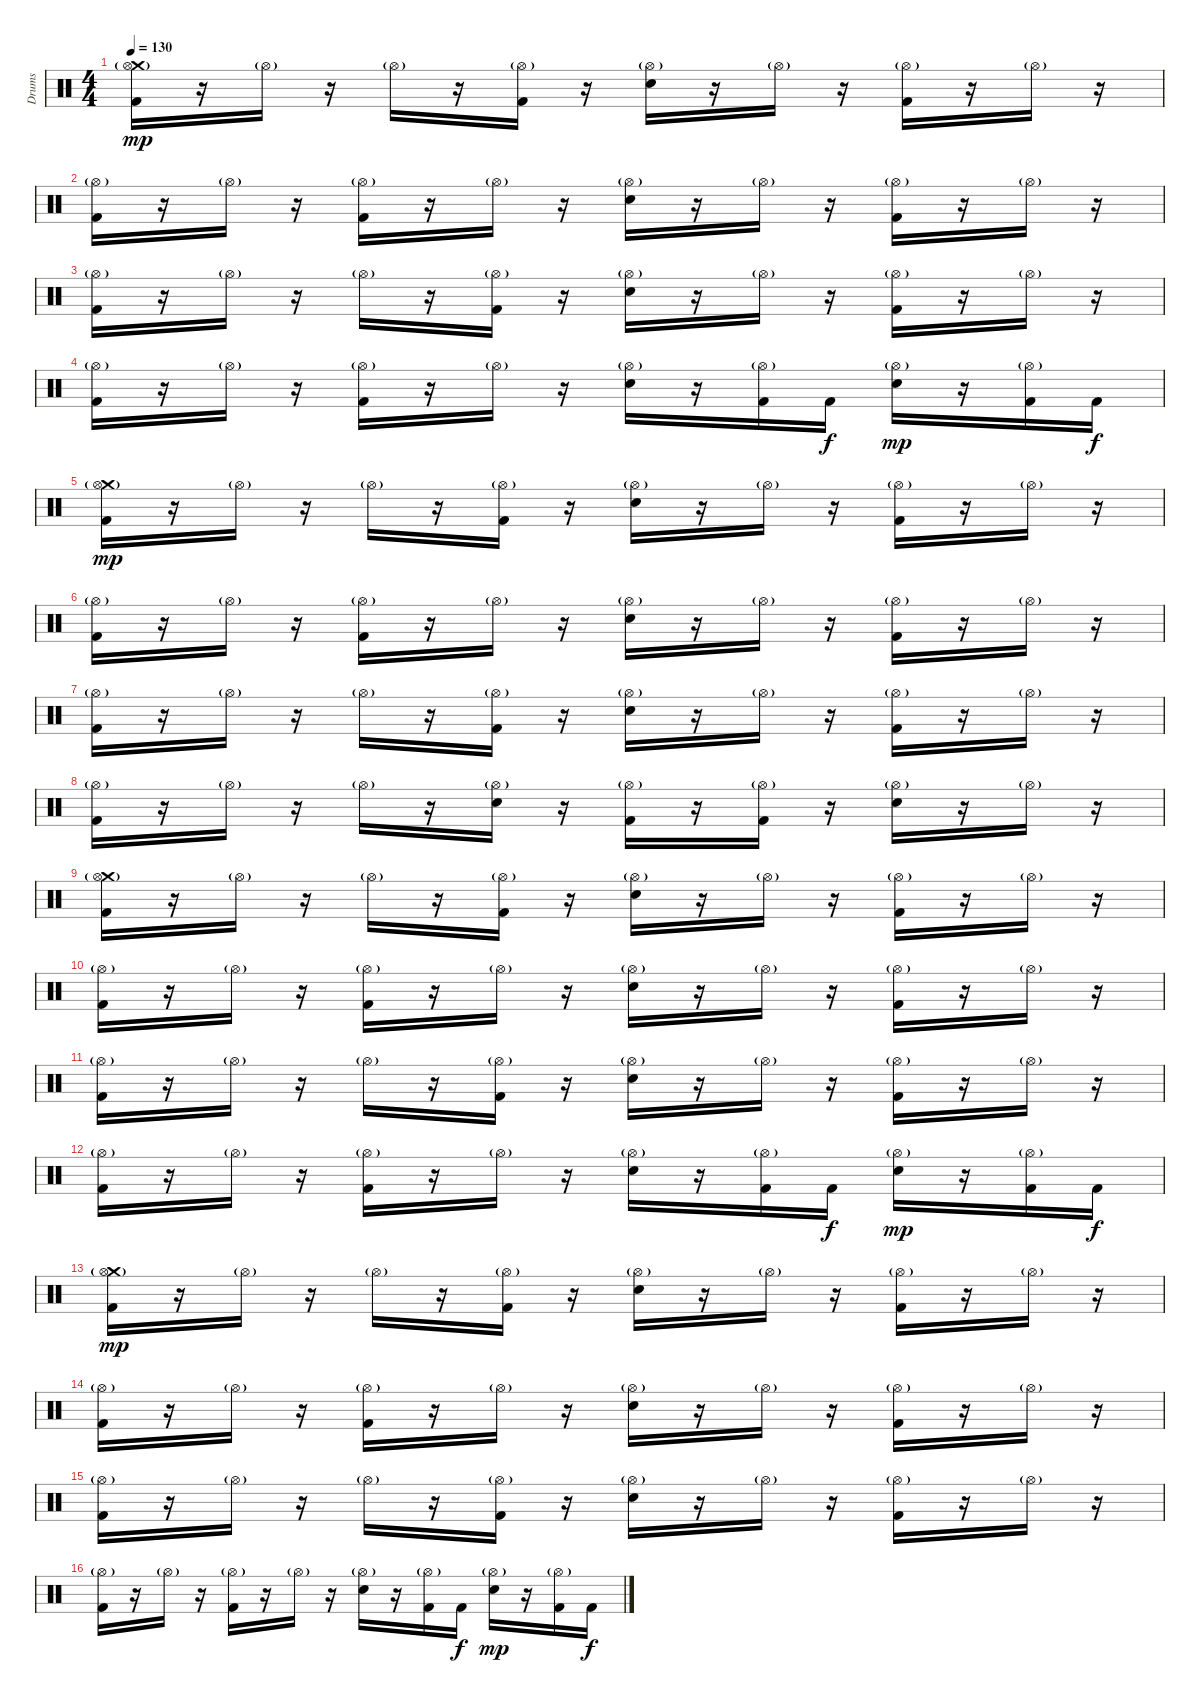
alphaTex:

\track ("Drums" "Drums") {instrument percussion}
\staff {score}
\articulation defaults
\ts (4 4)
\tempo 130
\clef neutral
\ks c
("Kick (hit) 2" "Crash medium (hit)" "Hi-Hat (open)"{g}).16{dy mp} r.16 "Hi-Hat (open)"{g}.16 r.16 "Hi-Hat (open)"{g}.16 r.16 ("Kick (hit) 2" "Hi-Hat (open)"{g}).16 r.16 ("Electric Snare (hit)" "Hi-Hat (open)"{g}).16 r.16 "Hi-Hat (open)"{g}.16 r.16 ("Kick (hit) 2" "Hi-Hat (open)"{g}).16 r.16 "Hi-Hat (open)"{g}.16 r.16 |
("Kick (hit) 2" "Hi-Hat (open)"{g}).16 r.16 "Hi-Hat (open)"{g}.16 r.16 ("Kick (hit) 2" "Hi-Hat (open)"{g}).16 r.16 "Hi-Hat (open)"{g}.16 r.16 ("Electric Snare (hit)" "Hi-Hat (open)"{g}).16 r.16 "Hi-Hat (open)"{g}.16 r.16 ("Kick (hit) 2" "Hi-Hat (open)"{g}).16 r.16 "Hi-Hat (open)"{g}.16 r.16 |
("Kick (hit) 2" "Hi-Hat (open)"{g}).16 r.16 "Hi-Hat (open)"{g}.16 r.16 "Hi-Hat (open)"{g}.16 r.16 ("Kick (hit) 2" "Hi-Hat (open)"{g}).16 r.16 ("Electric Snare (hit)" "Hi-Hat (open)"{g}).16 r.16 "Hi-Hat (open)"{g}.16 r.16 ("Kick (hit) 2" "Hi-Hat (open)"{g}).16 r.16 "Hi-Hat (open)"{g}.16 r.16 |
("Kick (hit) 2" "Hi-Hat (open)"{g}).16 r.16 "Hi-Hat (open)"{g}.16 r.16 ("Kick (hit) 2" "Hi-Hat (open)"{g}).16 r.16 "Hi-Hat (open)"{g}.16 r.16 ("Electric Snare (hit)" "Hi-Hat (open)"{g}).16 r.16 ("Kick (hit) 2" "Hi-Hat (open)"{g}).16 "Kick (hit) 2".16{dy f} ("Electric Snare (hit)" "Hi-Hat (open)"{g}).16{dy mp} r.16 ("Kick (hit) 2" "Hi-Hat (open)"{g}).16 "Kick (hit) 2".16{dy f} |
("Kick (hit) 2" "Crash medium (hit)" "Hi-Hat (open)"{g}).16{dy mp} r.16 "Hi-Hat (open)"{g}.16 r.16 "Hi-Hat (open)"{g}.16 r.16 ("Kick (hit) 2" "Hi-Hat (open)"{g}).16 r.16 ("Electric Snare (hit)" "Hi-Hat (open)"{g}).16 r.16 "Hi-Hat (open)"{g}.16 r.16 ("Kick (hit) 2" "Hi-Hat (open)"{g}).16 r.16 "Hi-Hat (open)"{g}.16 r.16 |
("Kick (hit) 2" "Hi-Hat (open)"{g}).16 r.16 "Hi-Hat (open)"{g}.16 r.16 ("Kick (hit) 2" "Hi-Hat (open)"{g}).16 r.16 "Hi-Hat (open)"{g}.16 r.16 ("Electric Snare (hit)" "Hi-Hat (open)"{g}).16 r.16 "Hi-Hat (open)"{g}.16 r.16 ("Kick (hit) 2" "Hi-Hat (open)"{g}).16 r.16 "Hi-Hat (open)"{g}.16 r.16 |
("Kick (hit) 2" "Hi-Hat (open)"{g}).16 r.16 "Hi-Hat (open)"{g}.16 r.16 "Hi-Hat (open)"{g}.16 r.16 ("Kick (hit) 2" "Hi-Hat (open)"{g}).16 r.16 ("Electric Snare (hit)" "Hi-Hat (open)"{g}).16 r.16 "Hi-Hat (open)"{g}.16 r.16 ("Kick (hit) 2" "Hi-Hat (open)"{g}).16 r.16 "Hi-Hat (open)"{g}.16 r.16 |
("Kick (hit) 2" "Hi-Hat (open)"{g}).16 r.16 "Hi-Hat (open)"{g}.16 r.16 "Hi-Hat (open)"{g}.16 r.16 ("Electric Snare (hit)" "Hi-Hat (open)"{g}).16 r.16 ("Kick (hit) 2" "Hi-Hat (open)"{g}).16 r.16 ("Kick (hit) 2" "Hi-Hat (open)"{g}).16 r.16 ("Electric Snare (hit)" "Hi-Hat (open)"{g}).16 r.16 "Hi-Hat (open)"{g}.16 r.16 |
("Kick (hit) 2" "Crash medium (hit)" "Hi-Hat (open)"{g}).16 r.16 "Hi-Hat (open)"{g}.16 r.16 "Hi-Hat (open)"{g}.16 r.16 ("Kick (hit) 2" "Hi-Hat (open)"{g}).16 r.16 ("Electric Snare (hit)" "Hi-Hat (open)"{g}).16 r.16 "Hi-Hat (open)"{g}.16 r.16 ("Kick (hit) 2" "Hi-Hat (open)"{g}).16 r.16 "Hi-Hat (open)"{g}.16 r.16 |
("Kick (hit) 2" "Hi-Hat (open)"{g}).16 r.16 "Hi-Hat (open)"{g}.16 r.16 ("Kick (hit) 2" "Hi-Hat (open)"{g}).16 r.16 "Hi-Hat (open)"{g}.16 r.16 ("Electric Snare (hit)" "Hi-Hat (open)"{g}).16 r.16 "Hi-Hat (open)"{g}.16 r.16 ("Kick (hit) 2" "Hi-Hat (open)"{g}).16 r.16 "Hi-Hat (open)"{g}.16 r.16 |
("Kick (hit) 2" "Hi-Hat (open)"{g}).16 r.16 "Hi-Hat (open)"{g}.16 r.16 "Hi-Hat (open)"{g}.16 r.16 ("Kick (hit) 2" "Hi-Hat (open)"{g}).16 r.16 ("Electric Snare (hit)" "Hi-Hat (open)"{g}).16 r.16 "Hi-Hat (open)"{g}.16 r.16 ("Kick (hit) 2" "Hi-Hat (open)"{g}).16 r.16 "Hi-Hat (open)"{g}.16 r.16 |
("Kick (hit) 2" "Hi-Hat (open)"{g}).16 r.16 "Hi-Hat (open)"{g}.16 r.16 ("Kick (hit) 2" "Hi-Hat (open)"{g}).16 r.16 "Hi-Hat (open)"{g}.16 r.16 ("Electric Snare (hit)" "Hi-Hat (open)"{g}).16 r.16 ("Kick (hit) 2" "Hi-Hat (open)"{g}).16 "Kick (hit) 2".16{dy f} ("Electric Snare (hit)" "Hi-Hat (open)"{g}).16{dy mp} r.16 ("Kick (hit) 2" "Hi-Hat (open)"{g}).16 "Kick (hit) 2".16{dy f} |
("Kick (hit) 2" "Crash medium (hit)" "Hi-Hat (open)"{g}).16{dy mp} r.16 "Hi-Hat (open)"{g}.16 r.16 "Hi-Hat (open)"{g}.16 r.16 ("Kick (hit) 2" "Hi-Hat (open)"{g}).16 r.16 ("Electric Snare (hit)" "Hi-Hat (open)"{g}).16 r.16 "Hi-Hat (open)"{g}.16 r.16 ("Kick (hit) 2" "Hi-Hat (open)"{g}).16 r.16 "Hi-Hat (open)"{g}.16 r.16 |
("Kick (hit) 2" "Hi-Hat (open)"{g}).16 r.16 "Hi-Hat (open)"{g}.16 r.16 ("Kick (hit) 2" "Hi-Hat (open)"{g}).16 r.16 "Hi-Hat (open)"{g}.16 r.16 ("Electric Snare (hit)" "Hi-Hat (open)"{g}).16 r.16 "Hi-Hat (open)"{g}.16 r.16 ("Kick (hit) 2" "Hi-Hat (open)"{g}).16 r.16 "Hi-Hat (open)"{g}.16 r.16 |
("Kick (hit) 2" "Hi-Hat (open)"{g}).16 r.16 "Hi-Hat (open)"{g}.16 r.16 "Hi-Hat (open)"{g}.16 r.16 ("Kick (hit) 2" "Hi-Hat (open)"{g}).16 r.16 ("Electric Snare (hit)" "Hi-Hat (open)"{g}).16 r.16 "Hi-Hat (open)"{g}.16 r.16 ("Kick (hit) 2" "Hi-Hat (open)"{g}).16 r.16 "Hi-Hat (open)"{g}.16 r.16 |
("Kick (hit) 2" "Hi-Hat (open)"{g}).16 r.16 "Hi-Hat (open)"{g}.16 r.16 ("Kick (hit) 2" "Hi-Hat (open)"{g}).16 r.16 "Hi-Hat (open)"{g}.16 r.16 ("Electric Snare (hit)" "Hi-Hat (open)"{g}).16 r.16 ("Kick (hit) 2" "Hi-Hat (open)"{g}).16 "Kick (hit) 2".16{dy f} ("Electric Snare (hit)" "Hi-Hat (open)"{g}).16{dy mp} r.16 ("Kick (hit) 2" "Hi-Hat (open)"{g}).16 "Kick (hit) 2".16{dy f}
